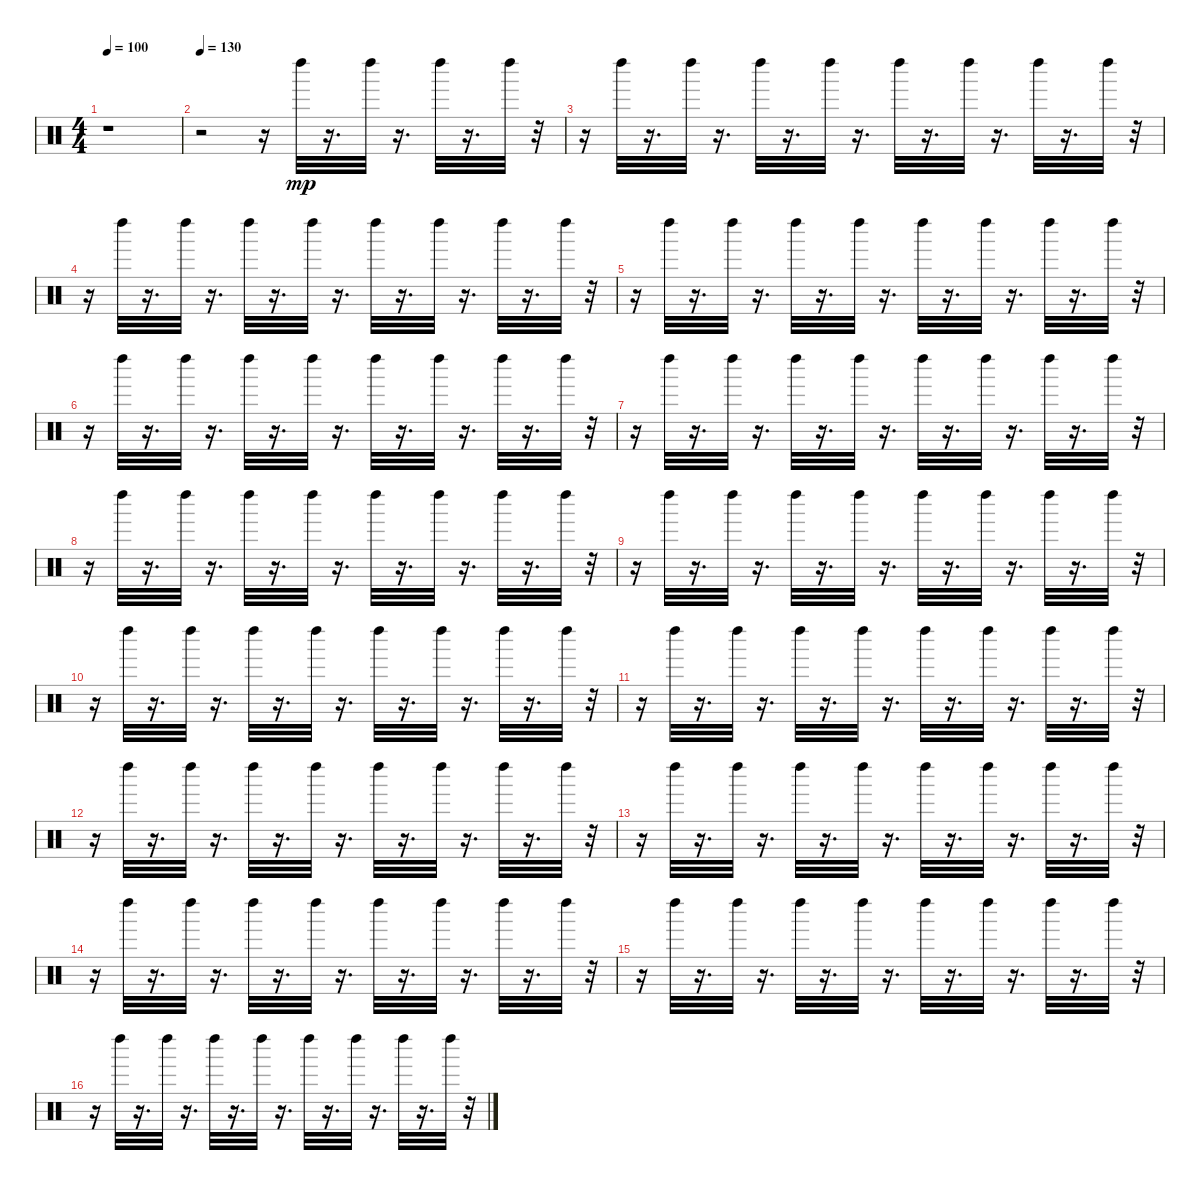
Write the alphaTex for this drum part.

\track "" {instrument percussion}
\staff {score}
\articulation defaults
\ts (4 4)
\tempo 100
\clef neutral
\ks c
r.1{dy mp} |
\tempo 130
r.2 r.16 "Left Maraca (hit)".32 r.16{d} "Left Maraca (hit)".32 r.16{d} "Left Maraca (hit)".32 r.16{d} "Left Maraca (hit)".32 r.32 |
r.16 "Left Maraca (hit)".32 r.16{d} "Left Maraca (hit)".32 r.16{d} "Left Maraca (hit)".32 r.16{d} "Left Maraca (hit)".32 r.16{d} "Left Maraca (hit)".32 r.16{d} "Left Maraca (hit)".32 r.16{d} "Left Maraca (hit)".32 r.16{d} "Left Maraca (hit)".32 r.32 |
r.16 "Left Maraca (hit)".32 r.16{d} "Left Maraca (hit)".32 r.16{d} "Left Maraca (hit)".32 r.16{d} "Left Maraca (hit)".32 r.16{d} "Left Maraca (hit)".32 r.16{d} "Left Maraca (hit)".32 r.16{d} "Left Maraca (hit)".32 r.16{d} "Left Maraca (hit)".32 r.32 |
r.16 "Left Maraca (hit)".32 r.16{d} "Left Maraca (hit)".32 r.16{d} "Left Maraca (hit)".32 r.16{d} "Left Maraca (hit)".32 r.16{d} "Left Maraca (hit)".32 r.16{d} "Left Maraca (hit)".32 r.16{d} "Left Maraca (hit)".32 r.16{d} "Left Maraca (hit)".32 r.32 |
r.16 "Left Maraca (hit)".32 r.16{d} "Left Maraca (hit)".32 r.16{d} "Left Maraca (hit)".32 r.16{d} "Left Maraca (hit)".32 r.16{d} "Left Maraca (hit)".32 r.16{d} "Left Maraca (hit)".32 r.16{d} "Left Maraca (hit)".32 r.16{d} "Left Maraca (hit)".32 r.32 |
r.16 "Left Maraca (hit)".32 r.16{d} "Left Maraca (hit)".32 r.16{d} "Left Maraca (hit)".32 r.16{d} "Left Maraca (hit)".32 r.16{d} "Left Maraca (hit)".32 r.16{d} "Left Maraca (hit)".32 r.16{d} "Left Maraca (hit)".32 r.16{d} "Left Maraca (hit)".32 r.32 |
r.16 "Left Maraca (hit)".32 r.16{d} "Left Maraca (hit)".32 r.16{d} "Left Maraca (hit)".32 r.16{d} "Left Maraca (hit)".32 r.16{d} "Left Maraca (hit)".32 r.16{d} "Left Maraca (hit)".32 r.16{d} "Left Maraca (hit)".32 r.16{d} "Left Maraca (hit)".32 r.32 |
r.16 "Left Maraca (hit)".32 r.16{d} "Left Maraca (hit)".32 r.16{d} "Left Maraca (hit)".32 r.16{d} "Left Maraca (hit)".32 r.16{d} "Left Maraca (hit)".32 r.16{d} "Left Maraca (hit)".32 r.16{d} "Left Maraca (hit)".32 r.16{d} "Left Maraca (hit)".32 r.32 |
r.16 "Left Maraca (hit)".32 r.16{d} "Left Maraca (hit)".32 r.16{d} "Left Maraca (hit)".32 r.16{d} "Left Maraca (hit)".32 r.16{d} "Left Maraca (hit)".32 r.16{d} "Left Maraca (hit)".32 r.16{d} "Left Maraca (hit)".32 r.16{d} "Left Maraca (hit)".32 r.32 |
r.16 "Left Maraca (hit)".32 r.16{d} "Left Maraca (hit)".32 r.16{d} "Left Maraca (hit)".32 r.16{d} "Left Maraca (hit)".32 r.16{d} "Left Maraca (hit)".32 r.16{d} "Left Maraca (hit)".32 r.16{d} "Left Maraca (hit)".32 r.16{d} "Left Maraca (hit)".32 r.32 |
r.16 "Left Maraca (hit)".32 r.16{d} "Left Maraca (hit)".32 r.16{d} "Left Maraca (hit)".32 r.16{d} "Left Maraca (hit)".32 r.16{d} "Left Maraca (hit)".32 r.16{d} "Left Maraca (hit)".32 r.16{d} "Left Maraca (hit)".32 r.16{d} "Left Maraca (hit)".32 r.32 |
r.16 "Left Maraca (hit)".32 r.16{d} "Left Maraca (hit)".32 r.16{d} "Left Maraca (hit)".32 r.16{d} "Left Maraca (hit)".32 r.16{d} "Left Maraca (hit)".32 r.16{d} "Left Maraca (hit)".32 r.16{d} "Left Maraca (hit)".32 r.16{d} "Left Maraca (hit)".32 r.32 |
r.16 "Left Maraca (hit)".32 r.16{d} "Left Maraca (hit)".32 r.16{d} "Left Maraca (hit)".32 r.16{d} "Left Maraca (hit)".32 r.16{d} "Left Maraca (hit)".32 r.16{d} "Left Maraca (hit)".32 r.16{d} "Left Maraca (hit)".32 r.16{d} "Left Maraca (hit)".32 r.32 |
r.16 "Left Maraca (hit)".32 r.16{d} "Left Maraca (hit)".32 r.16{d} "Left Maraca (hit)".32 r.16{d} "Left Maraca (hit)".32 r.16{d} "Left Maraca (hit)".32 r.16{d} "Left Maraca (hit)".32 r.16{d} "Left Maraca (hit)".32 r.16{d} "Left Maraca (hit)".32 r.32 |
r.16 "Left Maraca (hit)".32 r.16{d} "Left Maraca (hit)".32 r.16{d} "Left Maraca (hit)".32 r.16{d} "Left Maraca (hit)".32 r.16{d} "Left Maraca (hit)".32 r.16{d} "Left Maraca (hit)".32 r.16{d} "Left Maraca (hit)".32 r.16{d} "Left Maraca (hit)".32 r.32
